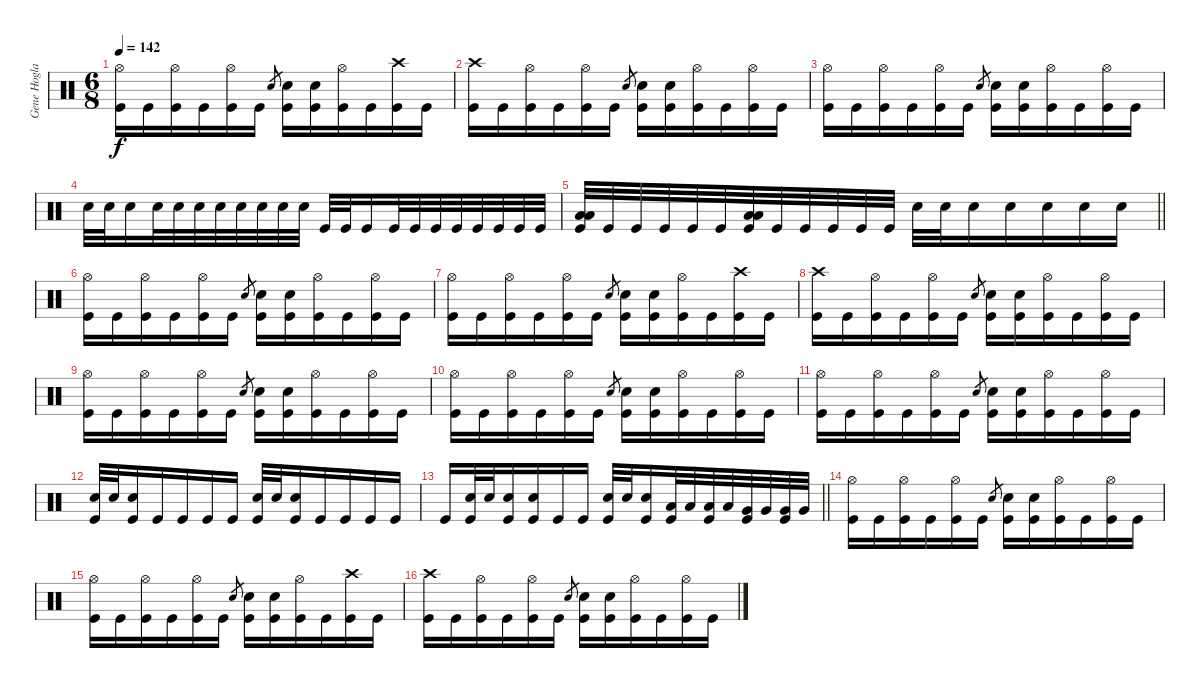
\track ("Gene Hoglan" "Gene Hogla") {instrument percussion}
\staff {score}
\articulation defaults
\ts (6 8)
\tempo 142
\clef neutral
\ks c
("Hi-Hat (open)" "Kick (hit)").16{dy f} "Kick (hit)".16 ("Hi-Hat (open)" "Kick (hit)").16 "Kick (hit)".16 ("Hi-Hat (open)" "Kick (hit)").16 "Kick (hit)".16 "Snare (hit) 2".8{gr} ("Snare (hit) 2" "Kick (hit)").16 ("Snare (hit) 2" "Kick (hit)").16 ("Hi-Hat (open)" "Kick (hit)").16 "Kick (hit)".16 ("Crash high (hit)" "Kick (hit)").16 "Kick (hit)".16 |
("Crash high (hit)" "Kick (hit)").16 "Kick (hit)".16 ("Hi-Hat (open)" "Kick (hit)").16 "Kick (hit)".16 ("Hi-Hat (open)" "Kick (hit)").16 "Kick (hit)".16 "Snare (hit) 2".8{gr} ("Snare (hit) 2" "Kick (hit)").16 ("Snare (hit) 2" "Kick (hit)").16 ("Hi-Hat (open)" "Kick (hit)").16 "Kick (hit)".16 ("Hi-Hat (open)" "Kick (hit)").16 "Kick (hit)".16 |
("Hi-Hat (open)" "Kick (hit)").16 "Kick (hit)".16 ("Hi-Hat (open)" "Kick (hit)").16 "Kick (hit)".16 ("Hi-Hat (open)" "Kick (hit)").16 "Kick (hit)".16 "Snare (hit) 2".8{gr} ("Snare (hit) 2" "Kick (hit)").16 ("Snare (hit) 2" "Kick (hit)").16 ("Hi-Hat (open)" "Kick (hit)").16 "Kick (hit)".16 ("Hi-Hat (open)" "Kick (hit)").16 "Kick (hit)".16 |
"Snare (hit) 2".32 "Snare (hit) 2".32 "Snare (hit) 2".16 "Snare (hit) 2".32 "Snare (hit) 2".32 "Snare (hit) 2".32 "Snare (hit) 2".32 "Snare (hit) 2".32 "Snare (hit) 2".32 "Snare (hit) 2".32 "Snare (hit) 2".32 "Kick (hit)".32 "Kick (hit)".32 "Kick (hit)".16 "Kick (hit)".32 "Kick (hit)".32 "Kick (hit)".32 "Kick (hit)".32 "Kick (hit)".32 "Kick (hit)".32 "Kick (hit)".32 "Kick (hit)".32 |
\barLineRight lightlight
("Low Tom (hit)" "Low Tom (hit)" "Kick (hit)").32 "Kick (hit)".32 "Kick (hit)".32 "Kick (hit)".32 "Kick (hit)".32 "Kick (hit)".32 ("Low Tom (hit)" "Low Tom (hit)" "Kick (hit)").32 "Kick (hit)".32 "Kick (hit)".32 "Kick (hit)".32 "Kick (hit)".32 "Kick (hit)".32 "Snare (hit) 2".32 "Snare (hit) 2".32 "Snare (hit) 2".16 "Snare (hit) 2".16 "Snare (hit) 2".16 "Snare (hit) 2".16 "Snare (hit) 2".16 |
("Hi-Hat (open)" "Kick (hit)").16 "Kick (hit)".16 ("Hi-Hat (open)" "Kick (hit)").16 "Kick (hit)".16 ("Hi-Hat (open)" "Kick (hit)").16 "Kick (hit)".16 "Snare (hit) 2".8{gr} ("Snare (hit) 2" "Kick (hit)").16 ("Snare (hit) 2" "Kick (hit)").16 ("Hi-Hat (open)" "Kick (hit)").16 "Kick (hit)".16 ("Hi-Hat (open)" "Kick (hit)").16 "Kick (hit)".16 |
("Hi-Hat (open)" "Kick (hit)").16 "Kick (hit)".16 ("Hi-Hat (open)" "Kick (hit)").16 "Kick (hit)".16 ("Hi-Hat (open)" "Kick (hit)").16 "Kick (hit)".16 "Snare (hit) 2".8{gr} ("Snare (hit) 2" "Kick (hit)").16 ("Snare (hit) 2" "Kick (hit)").16 ("Hi-Hat (open)" "Kick (hit)").16 "Kick (hit)".16 ("Crash high (hit)" "Kick (hit)").16 "Kick (hit)".16 |
("Crash high (hit)" "Kick (hit)").16 "Kick (hit)".16 ("Hi-Hat (open)" "Kick (hit)").16 "Kick (hit)".16 ("Hi-Hat (open)" "Kick (hit)").16 "Kick (hit)".16 "Snare (hit) 2".8{gr} ("Snare (hit) 2" "Kick (hit)").16 ("Snare (hit) 2" "Kick (hit)").16 ("Hi-Hat (open)" "Kick (hit)").16 "Kick (hit)".16 ("Hi-Hat (open)" "Kick (hit)").16 "Kick (hit)".16 |
("Hi-Hat (open)" "Kick (hit)").16 "Kick (hit)".16 ("Hi-Hat (open)" "Kick (hit)").16 "Kick (hit)".16 ("Hi-Hat (open)" "Kick (hit)").16 "Kick (hit)".16 "Snare (hit) 2".8{gr} ("Snare (hit) 2" "Kick (hit)").16 ("Snare (hit) 2" "Kick (hit)").16 ("Hi-Hat (open)" "Kick (hit)").16 "Kick (hit)".16 ("Hi-Hat (open)" "Kick (hit)").16 "Kick (hit)".16 |
("Hi-Hat (open)" "Kick (hit)").16 "Kick (hit)".16 ("Hi-Hat (open)" "Kick (hit)").16 "Kick (hit)".16 ("Hi-Hat (open)" "Kick (hit)").16 "Kick (hit)".16 "Snare (hit) 2".8{gr} ("Snare (hit) 2" "Kick (hit)").16 ("Snare (hit) 2" "Kick (hit)").16 ("Hi-Hat (open)" "Kick (hit)").16 "Kick (hit)".16 ("Hi-Hat (open)" "Kick (hit)").16 "Kick (hit)".16 |
("Hi-Hat (open)" "Kick (hit)").16 "Kick (hit)".16 ("Hi-Hat (open)" "Kick (hit)").16 "Kick (hit)".16 ("Hi-Hat (open)" "Kick (hit)").16 "Kick (hit)".16 "Snare (hit) 2".8{gr} ("Snare (hit) 2" "Kick (hit)").16 ("Snare (hit) 2" "Kick (hit)").16 ("Hi-Hat (open)" "Kick (hit)").16 "Kick (hit)".16 ("Hi-Hat (open)" "Kick (hit)").16 "Kick (hit)".16 |
("Kick (hit)" "Snare (hit) 2").32 "Snare (hit) 2".32 ("Kick (hit)" "Snare (hit) 2").16 "Kick (hit)".16 "Kick (hit)".16 "Kick (hit)".16 "Kick (hit)".16 ("Kick (hit)" "Snare (hit) 2").32 "Snare (hit) 2".32 ("Kick (hit)" "Snare (hit) 2").16 "Kick (hit)".16 "Kick (hit)".16 "Kick (hit)".16 "Kick (hit)".16 |
\barLineRight lightlight "Kick (hit)".16
("Kick (hit)" "Snare (hit) 2").32 "Snare (hit) 2".32 ("Kick (hit)" "Snare (hit) 2").16 ("Kick (hit)" "Snare (hit) 2").16 "Kick (hit)".16 "Kick (hit)".16 ("Snare (hit) 2" "Kick (hit)").32 "Snare (hit) 2".32 ("Snare (hit) 2" "Kick (hit)").16 ("Low Tom (hit)" "Kick (hit)").32 "Low Tom (hit)".32 ("Low Tom (hit)" "Kick (hit)").32 "Low Tom (hit)".32 ("Very Low Tom (hit)" "Kick (hit)").32 "Very Low Tom (hit)".32 ("Very Low Tom (hit)" "Kick (hit)").32 "Very Low Tom (hit)".32 |
("Hi-Hat (open)" "Kick (hit)").16 "Kick (hit)".16 ("Hi-Hat (open)" "Kick (hit)").16 "Kick (hit)".16 ("Hi-Hat (open)" "Kick (hit)").16 "Kick (hit)".16 "Snare (hit) 2".8{gr} ("Snare (hit) 2" "Kick (hit)").16 ("Snare (hit) 2" "Kick (hit)").16 ("Hi-Hat (open)" "Kick (hit)").16 "Kick (hit)".16 ("Hi-Hat (open)" "Kick (hit)").16 "Kick (hit)".16 |
("Hi-Hat (open)" "Kick (hit)").16 "Kick (hit)".16 ("Hi-Hat (open)" "Kick (hit)").16 "Kick (hit)".16 ("Hi-Hat (open)" "Kick (hit)").16 "Kick (hit)".16 "Snare (hit) 2".8{gr} ("Snare (hit) 2" "Kick (hit)").16 ("Snare (hit) 2" "Kick (hit)").16 ("Hi-Hat (open)" "Kick (hit)").16 "Kick (hit)".16 ("Crash high (hit)" "Kick (hit)").16 "Kick (hit)".16 |
("Crash high (hit)" "Kick (hit)").16 "Kick (hit)".16 ("Hi-Hat (open)" "Kick (hit)").16 "Kick (hit)".16 ("Hi-Hat (open)" "Kick (hit)").16 "Kick (hit)".16 "Snare (hit) 2".8{gr} ("Snare (hit) 2" "Kick (hit)").16 ("Snare (hit) 2" "Kick (hit)").16 ("Hi-Hat (open)" "Kick (hit)").16 "Kick (hit)".16 ("Hi-Hat (open)" "Kick (hit)").16 "Kick (hit)".16
